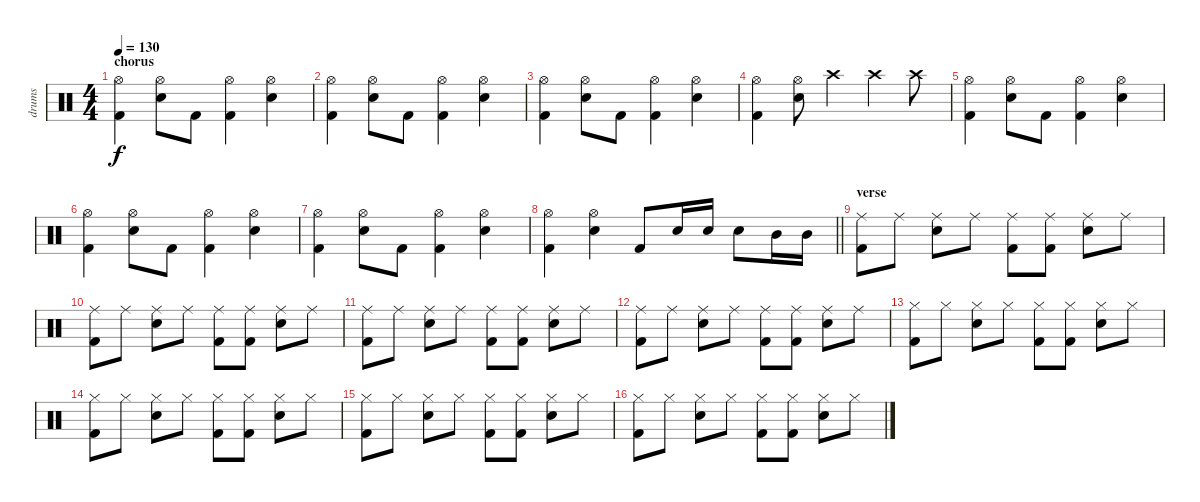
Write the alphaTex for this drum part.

\track ("drums" "drums") {instrument percussion}
\staff {score}
\articulation defaults
\ts (4 4)
\section ("" "chorus")
\tempo 130
\clef neutral
\ks c
("Hi-Hat (open)" "Kick (hit) 2").4{dy f} ("Hi-Hat (open)" "Snare (hit) 2").8 "Kick (hit) 2".8 ("Hi-Hat (open)" "Kick (hit) 2").4 ("Hi-Hat (open)" "Snare (hit) 2").4 |
("Hi-Hat (open)" "Kick (hit) 2").4 ("Hi-Hat (open)" "Snare (hit) 2").8 "Kick (hit) 2".8 ("Hi-Hat (open)" "Kick (hit) 2").4 ("Hi-Hat (open)" "Snare (hit) 2").4 |
("Hi-Hat (open)" "Kick (hit) 2").4 ("Hi-Hat (open)" "Snare (hit) 2").8 "Kick (hit) 2".8 ("Hi-Hat (open)" "Kick (hit) 2").4 ("Hi-Hat (open)" "Snare (hit) 2").4 |
("Hi-Hat (open)" "Kick (hit) 2").4 ("Hi-Hat (open)" "Snare (hit) 2").8 "Crash high (hit)".4 "Crash high (hit)".4 "Crash high (hit)".8 |
("Hi-Hat (open)" "Kick (hit) 2").4 ("Hi-Hat (open)" "Snare (hit) 2").8 "Kick (hit) 2".8 ("Hi-Hat (open)" "Kick (hit) 2").4 ("Hi-Hat (open)" "Snare (hit) 2").4 |
("Hi-Hat (open)" "Kick (hit) 2").4 ("Hi-Hat (open)" "Snare (hit) 2").8 "Kick (hit) 2".8 ("Hi-Hat (open)" "Kick (hit) 2").4 ("Hi-Hat (open)" "Snare (hit) 2").4 |
("Hi-Hat (open)" "Kick (hit) 2").4 ("Hi-Hat (open)" "Snare (hit) 2").8 "Kick (hit) 2".8 ("Hi-Hat (open)" "Kick (hit) 2").4 ("Hi-Hat (open)" "Snare (hit) 2").4 |
\barLineRight lightlight
("Hi-Hat (open)" "Kick (hit) 2").4 ("Hi-Hat (open)" "Snare (hit) 2").4 "Kick (hit) 2".8 "Snare (hit) 2".16 "Snare (hit) 2".16 "Snare (hit) 2".8 "Mid Tom (hit)".16 "Mid Tom (hit)".16 |
\section ("" "verse")
("Ride (middle)" "Kick (hit) 2").8 "Ride (middle)".8 ("Ride (middle)" "Snare (hit) 2").8 "Ride (middle)".8 ("Ride (middle)" "Kick (hit) 2").8 ("Ride (middle)" "Kick (hit) 2").8 ("Ride (middle)" "Snare (hit) 2").8 "Ride (middle)".8 |
("Ride (middle)" "Kick (hit) 2").8 "Ride (middle)".8 ("Ride (middle)" "Snare (hit) 2").8 "Ride (middle)".8 ("Ride (middle)" "Kick (hit) 2").8 ("Ride (middle)" "Kick (hit) 2").8 ("Ride (middle)" "Snare (hit) 2").8 "Ride (middle)".8 |
("Ride (middle)" "Kick (hit) 2").8 "Ride (middle)".8 ("Ride (middle)" "Snare (hit) 2").8 "Ride (middle)".8 ("Ride (middle)" "Kick (hit) 2").8 ("Ride (middle)" "Kick (hit) 2").8 ("Ride (middle)" "Snare (hit) 2").8 "Ride (middle)".8 |
("Ride (middle)" "Kick (hit) 2").8 "Ride (middle)".8 ("Ride (middle)" "Snare (hit) 2").8 "Ride (middle)".8 ("Ride (middle)" "Kick (hit) 2").8 ("Ride (middle)" "Kick (hit) 2").8 ("Ride (middle)" "Snare (hit) 2").8 "Ride (middle)".8 |
("Hi-Hat (closed)" "Kick (hit) 2").8 "Hi-Hat (closed)".8 ("Hi-Hat (closed)" "Snare (hit) 2").8 "Hi-Hat (closed)".8 ("Hi-Hat (closed)" "Kick (hit) 2").8 ("Hi-Hat (closed)" "Kick (hit) 2").8 ("Hi-Hat (closed)" "Snare (hit) 2").8 "Hi-Hat (closed)".8 |
("Hi-Hat (closed)" "Kick (hit) 2").8 "Hi-Hat (closed)".8 ("Hi-Hat (closed)" "Snare (hit) 2").8 "Hi-Hat (closed)".8 ("Hi-Hat (closed)" "Kick (hit) 2").8 ("Hi-Hat (closed)" "Kick (hit) 2").8 ("Hi-Hat (closed)" "Snare (hit) 2").8 "Hi-Hat (closed)".8 |
("Hi-Hat (closed)" "Kick (hit) 2").8 "Hi-Hat (closed)".8 ("Hi-Hat (closed)" "Snare (hit) 2").8 "Hi-Hat (closed)".8 ("Hi-Hat (closed)" "Kick (hit) 2").8 ("Hi-Hat (closed)" "Kick (hit) 2").8 ("Hi-Hat (closed)" "Snare (hit) 2").8 "Hi-Hat (closed)".8 |
("Hi-Hat (closed)" "Kick (hit) 2").8 "Hi-Hat (closed)".8 ("Hi-Hat (closed)" "Snare (hit) 2").8 "Hi-Hat (closed)".8 ("Hi-Hat (closed)" "Kick (hit) 2").8 ("Hi-Hat (closed)" "Kick (hit) 2").8 ("Hi-Hat (closed)" "Snare (hit) 2").8 "Hi-Hat (closed)".8
